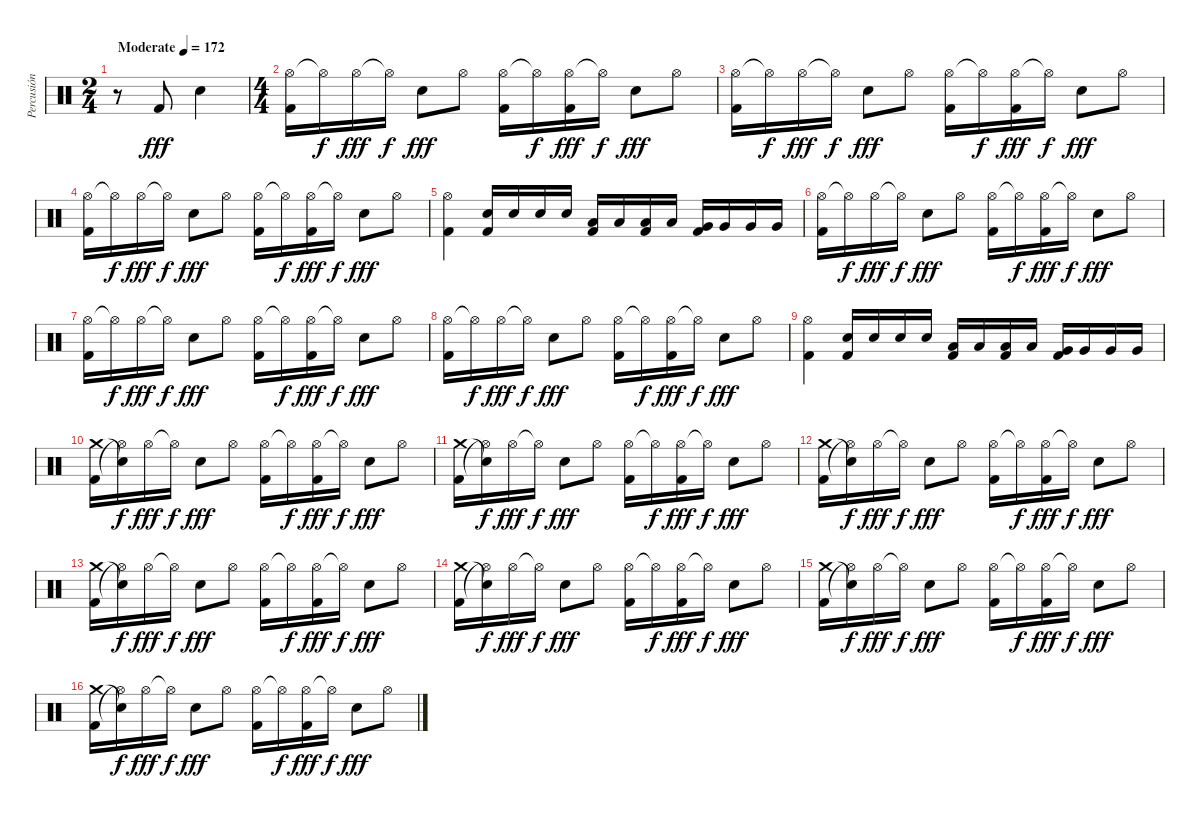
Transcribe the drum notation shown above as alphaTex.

\track ("Percusión" "Percusión") {instrument percussion}
\staff {score}
\articulation defaults
\ts (2 4)
\tempo (172 "Moderate")
\clef neutral
\ks c
r.8{dy fff} "Kick (hit) 2".8 "Electric Snare (hit)".4 |
\ts (4 4)
("Hi-Hat (open)" "Kick (hit) 2").16 "Hi-Hat (open)"{t}.16{dy f} "Hi-Hat (open)".16{dy fff} "Hi-Hat (open)"{t}.16{dy f} "Electric Snare (hit)".8{dy fff} "Hi-Hat (open)".8 ("Hi-Hat (open)" "Kick (hit) 2").16 "Hi-Hat (open)"{t}.16{dy f} ("Hi-Hat (open)" "Kick (hit) 2").16{dy fff} "Hi-Hat (open)"{t}.16{dy f} "Electric Snare (hit)".8{dy fff} "Hi-Hat (open)".8 |
("Hi-Hat (open)" "Kick (hit) 2").16 "Hi-Hat (open)"{t}.16{dy f} "Hi-Hat (open)".16{dy fff} "Hi-Hat (open)"{t}.16{dy f} "Electric Snare (hit)".8{dy fff} "Hi-Hat (open)".8 ("Hi-Hat (open)" "Kick (hit) 2").16 "Hi-Hat (open)"{t}.16{dy f} ("Hi-Hat (open)" "Kick (hit) 2").16{dy fff} "Hi-Hat (open)"{t}.16{dy f} "Electric Snare (hit)".8{dy fff} "Hi-Hat (open)".8 |
("Hi-Hat (open)" "Kick (hit) 2").16 "Hi-Hat (open)"{t}.16{dy f} "Hi-Hat (open)".16{dy fff} "Hi-Hat (open)"{t}.16{dy f} "Electric Snare (hit)".8{dy fff} "Hi-Hat (open)".8 ("Hi-Hat (open)" "Kick (hit) 2").16 "Hi-Hat (open)"{t}.16{dy f} ("Hi-Hat (open)" "Kick (hit) 2").16{dy fff} "Hi-Hat (open)"{t}.16{dy f} "Electric Snare (hit)".8{dy fff} "Hi-Hat (open)".8 |
("Hi-Hat (open)" "Kick (hit) 2").4 ("Electric Snare (hit)" "Kick (hit) 2").16 "Electric Snare (hit)".16 "Electric Snare (hit)".16 "Electric Snare (hit)".16 ("Low Tom (hit)" "Kick (hit) 2").16 "Low Tom (hit)".16 ("Low Tom (hit)" "Kick (hit) 2").16 "Low Tom (hit)".16 ("Very Low Tom (hit)" "Kick (hit) 2").16 "Very Low Tom (hit)".16 "Very Low Tom (hit)".16 "Very Low Tom (hit)".16 |
("Hi-Hat (open)" "Kick (hit) 2").16 "Hi-Hat (open)"{t}.16{dy f} "Hi-Hat (open)".16{dy fff} "Hi-Hat (open)"{t}.16{dy f} "Electric Snare (hit)".8{dy fff} "Hi-Hat (open)".8 ("Hi-Hat (open)" "Kick (hit) 2").16 "Hi-Hat (open)"{t}.16{dy f} ("Hi-Hat (open)" "Kick (hit) 2").16{dy fff} "Hi-Hat (open)"{t}.16{dy f} "Electric Snare (hit)".8{dy fff} "Hi-Hat (open)".8 |
("Hi-Hat (open)" "Kick (hit) 2").16 "Hi-Hat (open)"{t}.16{dy f} "Hi-Hat (open)".16{dy fff} "Hi-Hat (open)"{t}.16{dy f} "Electric Snare (hit)".8{dy fff} "Hi-Hat (open)".8 ("Hi-Hat (open)" "Kick (hit) 2").16 "Hi-Hat (open)"{t}.16{dy f} ("Hi-Hat (open)" "Kick (hit) 2").16{dy fff} "Hi-Hat (open)"{t}.16{dy f} "Electric Snare (hit)".8{dy fff} "Hi-Hat (open)".8 |
("Hi-Hat (open)" "Kick (hit) 2").16 "Hi-Hat (open)"{t}.16{dy f} "Hi-Hat (open)".16{dy fff} "Hi-Hat (open)"{t}.16{dy f} "Electric Snare (hit)".8{dy fff} "Hi-Hat (open)".8 ("Hi-Hat (open)" "Kick (hit) 2").16 "Hi-Hat (open)"{t}.16{dy f} ("Hi-Hat (open)" "Kick (hit) 2").16{dy fff} "Hi-Hat (open)"{t}.16{dy f} "Electric Snare (hit)".8{dy fff} "Hi-Hat (open)".8 |
("Hi-Hat (open)" "Kick (hit) 2").4 ("Electric Snare (hit)" "Kick (hit) 2").16 "Electric Snare (hit)".16 "Electric Snare (hit)".16 "Electric Snare (hit)".16 ("Low Tom (hit)" "Kick (hit) 2").16 "Low Tom (hit)".16 ("Low Tom (hit)" "Kick (hit) 2").16 "Low Tom (hit)".16 ("Very Low Tom (hit)" "Kick (hit) 2").16 "Very Low Tom (hit)".16 "Very Low Tom (hit)".16 "Very Low Tom (hit)".16 |
("Crash medium (hit)" "Kick (hit) 2").16 ("Snare (hit)"{t} "Hi-Hat (open)"{t}).16{dy f} "Hi-Hat (open)".16{dy fff} "Hi-Hat (open)"{t}.16{dy f} "Electric Snare (hit)".8{dy fff} "Hi-Hat (open)".8 ("Hi-Hat (open)" "Kick (hit) 2").16 "Hi-Hat (open)"{t}.16{dy f} ("Hi-Hat (open)" "Kick (hit) 2").16{dy fff} "Hi-Hat (open)"{t}.16{dy f} "Electric Snare (hit)".8{dy fff} "Hi-Hat (open)".8 |
("Crash medium (hit)" "Kick (hit) 2").16 ("Snare (hit)"{t} "Hi-Hat (open)"{t}).16{dy f} "Hi-Hat (open)".16{dy fff} "Hi-Hat (open)"{t}.16{dy f} "Electric Snare (hit)".8{dy fff} "Hi-Hat (open)".8 ("Hi-Hat (open)" "Kick (hit) 2").16 "Hi-Hat (open)"{t}.16{dy f} ("Hi-Hat (open)" "Kick (hit) 2").16{dy fff} "Hi-Hat (open)"{t}.16{dy f} "Electric Snare (hit)".8{dy fff} "Hi-Hat (open)".8 |
("Crash medium (hit)" "Kick (hit) 2").16 ("Snare (hit)"{t} "Hi-Hat (open)"{t}).16{dy f} "Hi-Hat (open)".16{dy fff} "Hi-Hat (open)"{t}.16{dy f} "Electric Snare (hit)".8{dy fff} "Hi-Hat (open)".8 ("Hi-Hat (open)" "Kick (hit) 2").16 "Hi-Hat (open)"{t}.16{dy f} ("Hi-Hat (open)" "Kick (hit) 2").16{dy fff} "Hi-Hat (open)"{t}.16{dy f} "Electric Snare (hit)".8{dy fff} "Hi-Hat (open)".8 |
("Crash medium (hit)" "Kick (hit) 2").16 ("Snare (hit)"{t} "Hi-Hat (open)"{t}).16{dy f} "Hi-Hat (open)".16{dy fff} "Hi-Hat (open)"{t}.16{dy f} "Electric Snare (hit)".8{dy fff} "Hi-Hat (open)".8 ("Hi-Hat (open)" "Kick (hit) 2").16 "Hi-Hat (open)"{t}.16{dy f} ("Hi-Hat (open)" "Kick (hit) 2").16{dy fff} "Hi-Hat (open)"{t}.16{dy f} "Electric Snare (hit)".8{dy fff} "Hi-Hat (open)".8 |
("Crash medium (hit)" "Kick (hit) 2").16 ("Snare (hit)"{t} "Hi-Hat (open)"{t}).16{dy f} "Hi-Hat (open)".16{dy fff} "Hi-Hat (open)"{t}.16{dy f} "Electric Snare (hit)".8{dy fff} "Hi-Hat (open)".8 ("Hi-Hat (open)" "Kick (hit) 2").16 "Hi-Hat (open)"{t}.16{dy f} ("Hi-Hat (open)" "Kick (hit) 2").16{dy fff} "Hi-Hat (open)"{t}.16{dy f} "Electric Snare (hit)".8{dy fff} "Hi-Hat (open)".8 |
("Crash medium (hit)" "Kick (hit) 2").16 ("Snare (hit)"{t} "Hi-Hat (open)"{t}).16{dy f} "Hi-Hat (open)".16{dy fff} "Hi-Hat (open)"{t}.16{dy f} "Electric Snare (hit)".8{dy fff} "Hi-Hat (open)".8 ("Hi-Hat (open)" "Kick (hit) 2").16 "Hi-Hat (open)"{t}.16{dy f} ("Hi-Hat (open)" "Kick (hit) 2").16{dy fff} "Hi-Hat (open)"{t}.16{dy f} "Electric Snare (hit)".8{dy fff} "Hi-Hat (open)".8 |
("Crash medium (hit)" "Kick (hit) 2").16 ("Snare (hit)"{t} "Hi-Hat (open)"{t}).16{dy f} "Hi-Hat (open)".16{dy fff} "Hi-Hat (open)"{t}.16{dy f} "Electric Snare (hit)".8{dy fff} "Hi-Hat (open)".8 ("Hi-Hat (open)" "Kick (hit) 2").16 "Hi-Hat (open)"{t}.16{dy f} ("Hi-Hat (open)" "Kick (hit) 2").16{dy fff} "Hi-Hat (open)"{t}.16{dy f} "Electric Snare (hit)".8{dy fff} "Hi-Hat (open)".8
